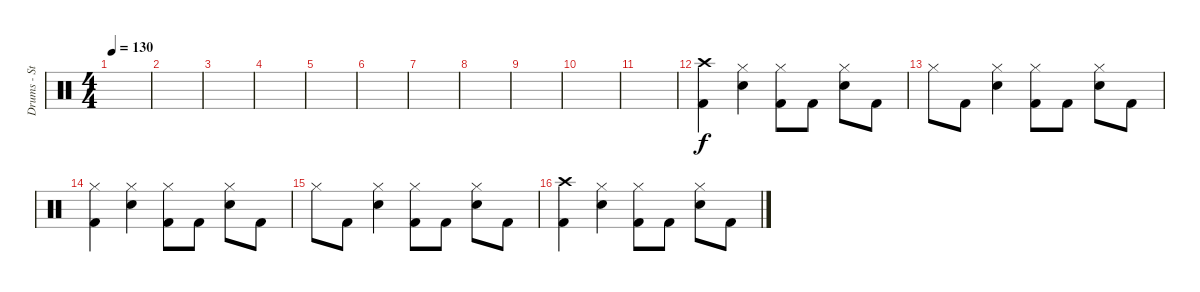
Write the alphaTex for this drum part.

\track ("Drums - Steven" "Drums - St") {instrument percussion}
\staff {score}
\articulation defaults
\ts (4 4)
\tempo 130
\clef neutral
\ks c
|
|
|
|
|
|
|
|
|
|
|
("Kick (hit) 2" "Crash high (hit)").4 ("Electric Snare (hit)" "Hi-Hat (closed)").4 ("Kick (hit) 2" "Hi-Hat (closed)").8 "Kick (hit) 2".8 ("Electric Snare (hit)" "Hi-Hat (closed)").8 "Kick (hit) 2".8 |
"Hi-Hat (closed)".8 "Kick (hit) 2".8 ("Electric Snare (hit)" "Hi-Hat (closed)").4 ("Kick (hit) 2" "Hi-Hat (closed)").8 "Kick (hit) 2".8 ("Electric Snare (hit)" "Hi-Hat (closed)").8 "Kick (hit) 2".8 |
("Kick (hit) 2" "Hi-Hat (closed)").4 ("Electric Snare (hit)" "Hi-Hat (closed)").4 ("Kick (hit) 2" "Hi-Hat (closed)").8 "Kick (hit) 2".8 ("Electric Snare (hit)" "Hi-Hat (closed)").8 "Kick (hit) 2".8 |
"Hi-Hat (closed)".8 "Kick (hit) 2".8 ("Electric Snare (hit)" "Hi-Hat (closed)").4 ("Kick (hit) 2" "Hi-Hat (closed)").8 "Kick (hit) 2".8 ("Electric Snare (hit)" "Hi-Hat (closed)").8 "Kick (hit) 2".8 |
("Kick (hit) 2" "Crash high (hit)").4 ("Electric Snare (hit)" "Hi-Hat (closed)").4 ("Kick (hit) 2" "Hi-Hat (closed)").8 "Kick (hit) 2".8 ("Electric Snare (hit)" "Hi-Hat (closed)").8 "Kick (hit) 2".8
